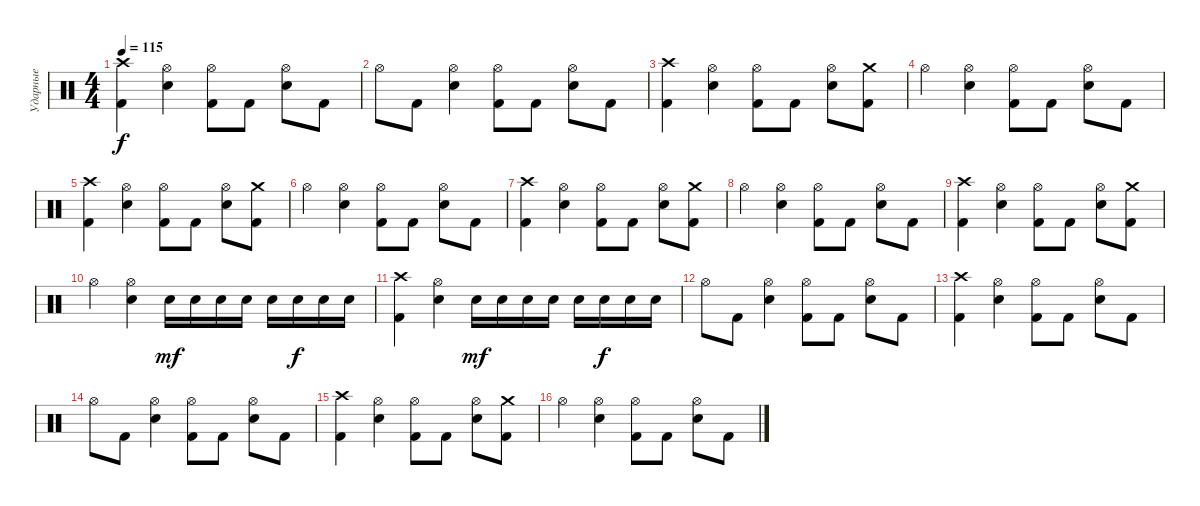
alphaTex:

\track ("Ударные" "Ударные") {instrument percussion}
\staff {score}
\articulation defaults
\ts (4 4)
\tempo 115
\clef neutral
\ks c
("Kick (hit) 2" "Crash high (hit)").4{dy f} ("Snare (hit) 2" "Hi-Hat (open)").4 ("Kick (hit) 2" "Hi-Hat (open)").8 "Kick (hit) 2".8 ("Snare (hit) 2" "Hi-Hat (open)").8 "Kick (hit) 2".8 |
"Hi-Hat (open)".8 "Kick (hit) 2".8 ("Snare (hit) 2" "Hi-Hat (open)").4 ("Kick (hit) 2" "Hi-Hat (open)").8 "Kick (hit) 2".8 ("Snare (hit) 2" "Hi-Hat (open)").8 "Kick (hit) 2".8 |
("Kick (hit) 2" "Crash high (hit)").4 ("Snare (hit) 2" "Hi-Hat (open)").4 ("Kick (hit) 2" "Hi-Hat (open)").8 "Kick (hit) 2".8 ("Snare (hit) 2" "Hi-Hat (open)").8 ("Kick (hit) 2" "Crash medium (hit)").8 |
"Hi-Hat (open)".4 ("Snare (hit) 2" "Hi-Hat (open)").4 ("Kick (hit) 2" "Hi-Hat (open)").8 "Kick (hit) 2".8 ("Snare (hit) 2" "Hi-Hat (open)").8 "Kick (hit) 2".8 |
("Kick (hit) 2" "Crash high (hit)").4 ("Snare (hit) 2" "Hi-Hat (open)").4 ("Kick (hit) 2" "Hi-Hat (open)").8 "Kick (hit) 2".8 ("Snare (hit) 2" "Hi-Hat (open)").8 ("Kick (hit) 2" "Crash medium (hit)").8 |
"Hi-Hat (open)".4 ("Snare (hit) 2" "Hi-Hat (open)").4 ("Kick (hit) 2" "Hi-Hat (open)").8 "Kick (hit) 2".8 ("Snare (hit) 2" "Hi-Hat (open)").8 "Kick (hit) 2".8 |
("Kick (hit) 2" "Crash high (hit)").4 ("Snare (hit) 2" "Hi-Hat (open)").4 ("Kick (hit) 2" "Hi-Hat (open)").8 "Kick (hit) 2".8 ("Snare (hit) 2" "Hi-Hat (open)").8 ("Kick (hit) 2" "Crash medium (hit)").8 |
"Hi-Hat (open)".4 ("Snare (hit) 2" "Hi-Hat (open)").4 ("Kick (hit) 2" "Hi-Hat (open)").8 "Kick (hit) 2".8 ("Snare (hit) 2" "Hi-Hat (open)").8 "Kick (hit) 2".8 |
("Kick (hit) 2" "Crash high (hit)").4 ("Snare (hit) 2" "Hi-Hat (open)").4 ("Kick (hit) 2" "Hi-Hat (open)").8 "Kick (hit) 2".8 ("Snare (hit) 2" "Hi-Hat (open)").8 ("Kick (hit) 2" "Crash medium (hit)").8 |
"Hi-Hat (open)".4 ("Snare (hit) 2" "Hi-Hat (open)").4 "Snare (hit) 2".16{dy mf} "Snare (hit) 2".16 "Snare (hit) 2".16 "Snare (hit) 2".16 "Snare (hit) 2".16 "Snare (hit) 2".16{dy f} "Snare (hit) 2".16 "Snare (hit) 2".16 |
("Kick (hit) 2" "Crash high (hit)").4 ("Snare (hit) 2" "Hi-Hat (open)").4 "Snare (hit) 2".16{dy mf} "Snare (hit) 2".16 "Snare (hit) 2".16 "Snare (hit) 2".16 "Snare (hit) 2".16 "Snare (hit) 2".16{dy f} "Snare (hit) 2".16 "Snare (hit) 2".16 |
"Hi-Hat (open)".8 "Kick (hit) 2".8 ("Snare (hit) 2" "Hi-Hat (open)").4 ("Kick (hit) 2" "Hi-Hat (open)").8 "Kick (hit) 2".8 ("Snare (hit) 2" "Hi-Hat (open)").8 "Kick (hit) 2".8 |
("Kick (hit) 2" "Crash high (hit)").4 ("Snare (hit) 2" "Hi-Hat (open)").4 ("Kick (hit) 2" "Hi-Hat (open)").8 "Kick (hit) 2".8 ("Snare (hit) 2" "Hi-Hat (open)").8 "Kick (hit) 2".8 |
"Hi-Hat (open)".8 "Kick (hit) 2".8 ("Snare (hit) 2" "Hi-Hat (open)").4 ("Kick (hit) 2" "Hi-Hat (open)").8 "Kick (hit) 2".8 ("Snare (hit) 2" "Hi-Hat (open)").8 "Kick (hit) 2".8 |
("Kick (hit) 2" "Crash high (hit)").4 ("Snare (hit) 2" "Hi-Hat (open)").4 ("Kick (hit) 2" "Hi-Hat (open)").8 "Kick (hit) 2".8 ("Snare (hit) 2" "Hi-Hat (open)").8 ("Kick (hit) 2" "Crash medium (hit)").8 |
"Hi-Hat (open)".4 ("Snare (hit) 2" "Hi-Hat (open)").4 ("Kick (hit) 2" "Hi-Hat (open)").8 "Kick (hit) 2".8 ("Snare (hit) 2" "Hi-Hat (open)").8 "Kick (hit) 2".8
